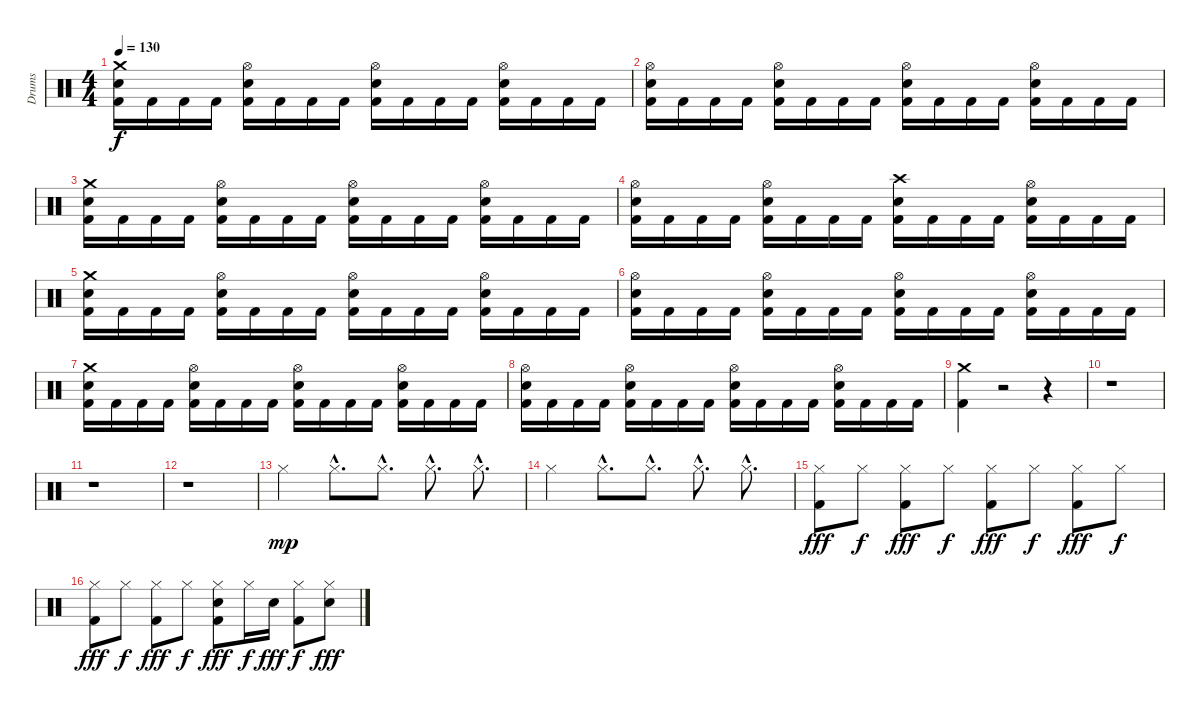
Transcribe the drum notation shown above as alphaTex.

\track ("Drums" "Drums") {instrument percussion}
\staff {score}
\articulation defaults
\ts (4 4)
\tempo 130
\clef neutral
\ks c
("Crash medium (hit)" "Snare (hit) 2" "Kick (hit) 2").16{dy f} "Kick (hit) 2".16 "Kick (hit) 2".16 "Kick (hit) 2".16 ("Hi-Hat (open)" "Snare (hit) 2" "Kick (hit) 2").16 "Kick (hit) 2".16 "Kick (hit) 2".16 "Kick (hit) 2".16 ("Hi-Hat (open)" "Snare (hit) 2" "Kick (hit) 2").16 "Kick (hit) 2".16 "Kick (hit) 2".16 "Kick (hit) 2".16 ("Hi-Hat (open)" "Snare (hit) 2" "Kick (hit) 2").16 "Kick (hit) 2".16 "Kick (hit) 2".16 "Kick (hit) 2".16 |
("Hi-Hat (open)" "Snare (hit) 2" "Kick (hit) 2").16 "Kick (hit) 2".16 "Kick (hit) 2".16 "Kick (hit) 2".16 ("Hi-Hat (open)" "Snare (hit) 2" "Kick (hit) 2").16 "Kick (hit) 2".16 "Kick (hit) 2".16 "Kick (hit) 2".16 ("Hi-Hat (open)" "Snare (hit) 2" "Kick (hit) 2").16 "Kick (hit) 2".16 "Kick (hit) 2".16 "Kick (hit) 2".16 ("Hi-Hat (open)" "Snare (hit) 2" "Kick (hit) 2").16 "Kick (hit) 2".16 "Kick (hit) 2".16 "Kick (hit) 2".16 |
("Crash medium (hit)" "Snare (hit) 2" "Kick (hit) 2").16 "Kick (hit) 2".16 "Kick (hit) 2".16 "Kick (hit) 2".16 ("Hi-Hat (open)" "Snare (hit) 2" "Kick (hit) 2").16 "Kick (hit) 2".16 "Kick (hit) 2".16 "Kick (hit) 2".16 ("Hi-Hat (open)" "Snare (hit) 2" "Kick (hit) 2").16 "Kick (hit) 2".16 "Kick (hit) 2".16 "Kick (hit) 2".16 ("Hi-Hat (open)" "Snare (hit) 2" "Kick (hit) 2").16 "Kick (hit) 2".16 "Kick (hit) 2".16 "Kick (hit) 2".16 |
("Hi-Hat (open)" "Snare (hit) 2" "Kick (hit) 2").16 "Kick (hit) 2".16 "Kick (hit) 2".16 "Kick (hit) 2".16 ("Hi-Hat (open)" "Snare (hit) 2" "Kick (hit) 2").16 "Kick (hit) 2".16 "Kick (hit) 2".16 "Kick (hit) 2".16 ("Crash high (hit)" "Snare (hit) 2" "Kick (hit) 2").16 "Kick (hit) 2".16 "Kick (hit) 2".16 "Kick (hit) 2".16 ("Hi-Hat (open)" "Snare (hit) 2" "Kick (hit) 2").16 "Kick (hit) 2".16 "Kick (hit) 2".16 "Kick (hit) 2".16 |
("Crash medium (hit)" "Snare (hit) 2" "Kick (hit) 2").16 "Kick (hit) 2".16 "Kick (hit) 2".16 "Kick (hit) 2".16 ("Hi-Hat (open)" "Snare (hit) 2" "Kick (hit) 2").16 "Kick (hit) 2".16 "Kick (hit) 2".16 "Kick (hit) 2".16 ("Hi-Hat (open)" "Snare (hit) 2" "Kick (hit) 2").16 "Kick (hit) 2".16 "Kick (hit) 2".16 "Kick (hit) 2".16 ("Hi-Hat (open)" "Snare (hit) 2" "Kick (hit) 2").16 "Kick (hit) 2".16 "Kick (hit) 2".16 "Kick (hit) 2".16 |
("Hi-Hat (open)" "Snare (hit) 2" "Kick (hit) 2").16 "Kick (hit) 2".16 "Kick (hit) 2".16 "Kick (hit) 2".16 ("Hi-Hat (open)" "Snare (hit) 2" "Kick (hit) 2").16 "Kick (hit) 2".16 "Kick (hit) 2".16 "Kick (hit) 2".16 ("Hi-Hat (open)" "Snare (hit) 2" "Kick (hit) 2").16 "Kick (hit) 2".16 "Kick (hit) 2".16 "Kick (hit) 2".16 ("Hi-Hat (open)" "Snare (hit) 2" "Kick (hit) 2").16 "Kick (hit) 2".16 "Kick (hit) 2".16 "Kick (hit) 2".16 |
("Crash medium (hit)" "Snare (hit) 2" "Kick (hit) 2").16 "Kick (hit) 2".16 "Kick (hit) 2".16 "Kick (hit) 2".16 ("Hi-Hat (open)" "Snare (hit) 2" "Kick (hit) 2").16 "Kick (hit) 2".16 "Kick (hit) 2".16 "Kick (hit) 2".16 ("Hi-Hat (open)" "Snare (hit) 2" "Kick (hit) 2").16 "Kick (hit) 2".16 "Kick (hit) 2".16 "Kick (hit) 2".16 ("Hi-Hat (open)" "Snare (hit) 2" "Kick (hit) 2").16 "Kick (hit) 2".16 "Kick (hit) 2".16 "Kick (hit) 2".16 |
("Hi-Hat (open)" "Snare (hit) 2" "Kick (hit) 2").16 "Kick (hit) 2".16 "Kick (hit) 2".16 "Kick (hit) 2".16 ("Hi-Hat (open)" "Snare (hit) 2" "Kick (hit) 2").16 "Kick (hit) 2".16 "Kick (hit) 2".16 "Kick (hit) 2".16 ("Hi-Hat (open)" "Snare (hit) 2" "Kick (hit) 2").16 "Kick (hit) 2".16 "Kick (hit) 2".16 "Kick (hit) 2".16 ("Hi-Hat (open)" "Snare (hit) 2" "Kick (hit) 2").16 "Kick (hit) 2".16 "Kick (hit) 2".16 "Kick (hit) 2".16 |
("Crash medium (hit)" "Kick (hit) 2").4 r.2 r.4 |
r.1 |
r.1 |
r.1 |
"Hi-Hat (closed)".4{dy mp} "Hi-Hat (closed)"{hac}.8{d} "Hi-Hat (closed)"{hac}.8{d} "Hi-Hat (closed)"{hac}.8{d} "Hi-Hat (closed)"{hac}.8{d} |
"Hi-Hat (closed)".4 "Hi-Hat (closed)"{hac}.8{d} "Hi-Hat (closed)"{hac}.8{d} "Hi-Hat (closed)"{hac}.8{d} "Hi-Hat (closed)"{hac}.8{d} |
("Hi-Hat (closed)" "Kick (hit) 2").8{dy fff} "Hi-Hat (closed)".8{dy f} ("Hi-Hat (closed)" "Kick (hit) 2").8{dy fff} "Hi-Hat (closed)".8{dy f} ("Hi-Hat (closed)" "Kick (hit) 2").8{dy fff} "Hi-Hat (closed)".8{dy f} ("Hi-Hat (closed)" "Kick (hit) 2").8{dy fff} "Hi-Hat (closed)".8{dy f} |
("Hi-Hat (closed)" "Kick (hit) 2").8{dy fff} "Hi-Hat (closed)".8{dy f} ("Hi-Hat (closed)" "Kick (hit) 2").8{dy fff} "Hi-Hat (closed)".8{dy f} ("Hi-Hat (closed)" "Snare (hit) 2" "Kick (hit) 2").8{dy fff} "Hi-Hat (closed)".16{dy f} "Snare (hit) 2".16{dy fff} ("Hi-Hat (closed)" "Kick (hit) 2").8{dy f} ("Hi-Hat (closed)" "Snare (hit) 2").8{dy fff}
